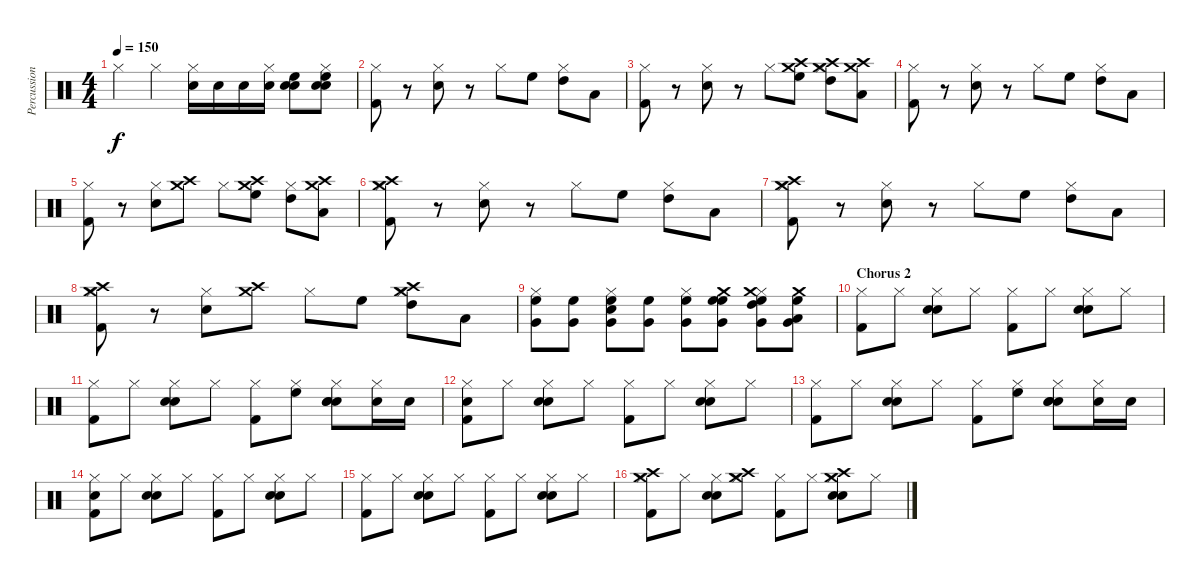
\track ("Percussion" "Percussion") {instrument percussion}
\staff {score}
\articulation defaults
\ts (4 4)
\tempo 150
\clef neutral
\ks c "Hi-Hat (closed)".4{dy f} "Hi-Hat (closed)".4
("Hi-Hat (closed)" "Snare (hit) 2").16 "Snare (hit) 2".16 "Snare (hit) 2".16 ("Hi-Hat (closed)" "Snare (hit) 2").16 ("Snare (hit)" "High Floor Tom (hit)" "Snare (hit) 2").8 ("Hi-Hat (closed)" "Snare (hit)" "High Floor Tom (hit)" "Snare (hit) 2").8 |
("Hi-Hat (closed)" "Kick (hit) 2").8 r.8 ("Hi-Hat (closed)" "Snare (hit) 2").8 r.8 "Hi-Hat (closed)".8 "High Floor Tom (hit)".8 ("Hi-Hat (closed)" "High Tom (hit)").8 "Low Tom (hit)".8 |
("Hi-Hat (closed)" "Kick (hit) 2").8 r.8 ("Hi-Hat (closed)" "Snare (hit) 2").8 r.8 "Hi-Hat (closed)".8 ("High Floor Tom (hit)" "Crash medium (hit)" "Crash high (hit)").8 ("Hi-Hat (closed)" "High Tom (hit)" "Crash medium (hit)" "Crash high (hit)").8 ("Low Tom (hit)" "Crash medium (hit)" "Crash high (hit)").8 |
("Hi-Hat (closed)" "Kick (hit) 2").8 r.8 ("Hi-Hat (closed)" "Snare (hit) 2").8 r.8 "Hi-Hat (closed)".8 "High Floor Tom (hit)".8 ("Hi-Hat (closed)" "High Tom (hit)").8 "Low Tom (hit)".8 |
("Hi-Hat (closed)" "Kick (hit) 2").8 r.8 ("Hi-Hat (closed)" "Snare (hit) 2").8 ("Crash medium (hit)" "Crash high (hit)").8 "Hi-Hat (closed)".8 ("High Floor Tom (hit)" "Crash medium (hit)" "Crash high (hit)").8 ("Hi-Hat (closed)" "High Tom (hit)").8 ("Low Tom (hit)" "Crash medium (hit)" "Crash high (hit)").8 |
("Hi-Hat (closed)" "Kick (hit) 2" "Crash medium (hit)" "Crash high (hit)").8 r.8 ("Hi-Hat (closed)" "Snare (hit) 2").8 r.8 "Hi-Hat (closed)".8 "High Floor Tom (hit)".8 ("Hi-Hat (closed)" "High Tom (hit)").8 "Low Tom (hit)".8 |
("Hi-Hat (closed)" "Kick (hit) 2" "Crash high (hit)" "Crash medium (hit)").8 r.8 ("Hi-Hat (closed)" "Snare (hit) 2").8 r.8 "Hi-Hat (closed)".8 "High Floor Tom (hit)".8 ("Hi-Hat (closed)" "High Tom (hit)").8 "Low Tom (hit)".8 |
("Hi-Hat (closed)" "Kick (hit) 2" "Crash medium (hit)" "Crash high (hit)").8 r.8 ("Hi-Hat (closed)" "Snare (hit) 2").8 ("Crash medium (hit)" "Crash high (hit)").8 "Hi-Hat (closed)".8 "High Floor Tom (hit)".8 ("Hi-Hat (closed)" "High Tom (hit)" "Crash medium (hit)" "Crash high (hit)").8 "Low Tom (hit)".8 |
("Hi-Hat (closed)" "High Floor Tom (hit)" "Very Low Tom (hit)").8 ("High Floor Tom (hit)" "Very Low Tom (hit)").8 ("Hi-Hat (closed)" "High Floor Tom (hit)" "Snare (hit) 2" "Very Low Tom (hit)").8 ("High Floor Tom (hit)" "Very Low Tom (hit)").8 ("Hi-Hat (closed)" "High Floor Tom (hit)" "Very Low Tom (hit)").8 ("High Floor Tom (hit)" "High Floor Tom (hit)" "Very Low Tom (hit)" "Crash medium (hit)").8 ("Hi-Hat (closed)" "High Floor Tom (hit)" "High Tom (hit)" "Very Low Tom (hit)" "Crash medium (hit)").8 ("High Floor Tom (hit)" "Low Tom (hit)" "Very Low Tom (hit)" "Crash medium (hit)").8 |
\section ("" "Chorus 2")
("Hi-Hat (closed)" "Kick (hit) 2").8 "Hi-Hat (closed)".8 ("Hi-Hat (closed)" "Snare (hit) 2" "Electric Snare (hit)").8 "Hi-Hat (closed)".8 ("Hi-Hat (closed)" "Kick (hit) 2").8 "Hi-Hat (closed)".8 ("Hi-Hat (closed)" "Snare (hit) 2" "Electric Snare (hit)").8 "Hi-Hat (closed)".8 |
("Hi-Hat (closed)" "Kick (hit) 2").8 "Hi-Hat (closed)".8 ("Hi-Hat (closed)" "Snare (hit) 2" "Electric Snare (hit)").8 "Hi-Hat (closed)".8 ("Hi-Hat (closed)" "Kick (hit) 2").8 ("Hi-Hat (closed)" "High Floor Tom (hit)").8 ("Hi-Hat (closed)" "Snare (hit) 2" "Electric Snare (hit)" "Snare (hit) 2").8 ("Hi-Hat (closed)" "Snare (hit) 2").16 "Snare (hit) 2".16 |
("Hi-Hat (closed)" "Kick (hit) 2" "Snare (hit) 2").8 "Hi-Hat (closed)".8 ("Hi-Hat (closed)" "Snare (hit) 2" "Electric Snare (hit)").8 "Hi-Hat (closed)".8 ("Hi-Hat (closed)" "Kick (hit) 2").8 "Hi-Hat (closed)".8 ("Hi-Hat (closed)" "Snare (hit) 2" "Electric Snare (hit)").8 "Hi-Hat (closed)".8 |
("Hi-Hat (closed)" "Kick (hit) 2").8 "Hi-Hat (closed)".8 ("Hi-Hat (closed)" "Snare (hit) 2" "Electric Snare (hit)").8 "Hi-Hat (closed)".8 ("Hi-Hat (closed)" "Kick (hit) 2").8 ("Hi-Hat (closed)" "High Floor Tom (hit)").8 ("Hi-Hat (closed)" "Snare (hit) 2" "Electric Snare (hit)" "Snare (hit) 2").8 ("Hi-Hat (closed)" "Snare (hit) 2").16 "Snare (hit) 2".16 |
("Hi-Hat (closed)" "Kick (hit) 2" "Snare (hit) 2").8 "Hi-Hat (closed)".8 ("Hi-Hat (closed)" "Snare (hit) 2" "Electric Snare (hit)").8 "Hi-Hat (closed)".8 ("Hi-Hat (closed)" "Kick (hit) 2").8 "Hi-Hat (closed)".8 ("Hi-Hat (closed)" "Snare (hit) 2" "Electric Snare (hit)").8 "Hi-Hat (closed)".8 |
("Hi-Hat (closed)" "Kick (hit) 2").8 "Hi-Hat (closed)".8 ("Hi-Hat (closed)" "Snare (hit) 2" "Electric Snare (hit)").8 "Hi-Hat (closed)".8 ("Hi-Hat (closed)" "Kick (hit) 2").8 "Hi-Hat (closed)".8 ("Hi-Hat (closed)" "Snare (hit) 2" "Electric Snare (hit)").8 "Hi-Hat (closed)".8 |
("Hi-Hat (closed)" "Kick (hit) 2" "Crash high (hit)" "Crash medium (hit)").8 "Hi-Hat (closed)".8 ("Hi-Hat (closed)" "Snare (hit) 2" "Electric Snare (hit)").8 ("Hi-Hat (closed)" "Crash high (hit)" "Crash medium (hit)").8 ("Hi-Hat (closed)" "Kick (hit) 2").8 "Hi-Hat (closed)".8 ("Hi-Hat (closed)" "Snare (hit) 2" "Electric Snare (hit)" "Crash high (hit)" "Crash medium (hit)").8 "Hi-Hat (closed)".8
